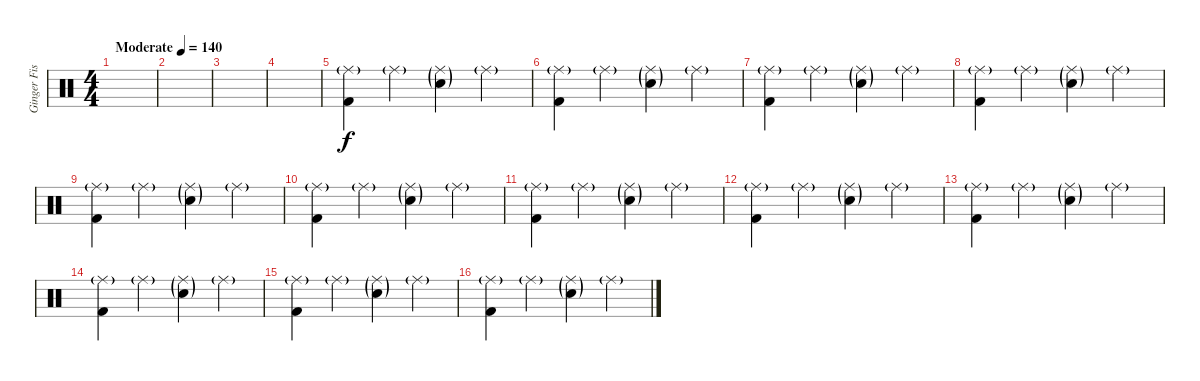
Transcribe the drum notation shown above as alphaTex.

\track ("Ginger Fish" "Ginger Fis") {instrument percussion}
\staff {score}
\articulation defaults
\ts (4 4)
\tempo (140 "Moderate")
\clef neutral
\ks c
|
|
|
|
("Ride (middle)"{g} "Kick (hit) 2").4 "Ride (middle)"{g}.4 ("Ride (middle)"{g} "Snare (hit) 2"{g}).4 "Ride (middle)"{g}.4 |
("Ride (middle)"{g} "Kick (hit) 2").4 "Ride (middle)"{g}.4 ("Ride (middle)"{g} "Snare (hit) 2"{g}).4 "Ride (middle)"{g}.4 |
("Ride (middle)"{g} "Kick (hit) 2").4 "Ride (middle)"{g}.4 ("Ride (middle)"{g} "Snare (hit) 2"{g}).4 "Ride (middle)"{g}.4 |
("Ride (middle)"{g} "Kick (hit) 2").4 "Ride (middle)"{g}.4 ("Ride (middle)"{g} "Snare (hit) 2"{g}).4 "Ride (middle)"{g}.4 |
("Ride (middle)"{g} "Kick (hit) 2").4 "Ride (middle)"{g}.4 ("Ride (middle)"{g} "Snare (hit) 2"{g}).4 "Ride (middle)"{g}.4 |
("Ride (middle)"{g} "Kick (hit) 2").4 "Ride (middle)"{g}.4 ("Ride (middle)"{g} "Snare (hit) 2"{g}).4 "Ride (middle)"{g}.4 |
("Ride (middle)"{g} "Kick (hit) 2").4 "Ride (middle)"{g}.4 ("Ride (middle)"{g} "Snare (hit) 2"{g}).4 "Ride (middle)"{g}.4 |
("Ride (middle)"{g} "Kick (hit) 2").4 "Ride (middle)"{g}.4 ("Ride (middle)"{g} "Snare (hit) 2"{g}).4 "Ride (middle)"{g}.4 |
("Ride (middle)"{g} "Kick (hit) 2").4 "Ride (middle)"{g}.4 ("Ride (middle)"{g} "Snare (hit) 2"{g}).4 "Ride (middle)"{g}.4 |
("Ride (middle)"{g} "Kick (hit) 2").4 "Ride (middle)"{g}.4 ("Ride (middle)"{g} "Snare (hit) 2"{g}).4 "Ride (middle)"{g}.4 |
("Ride (middle)"{g} "Kick (hit) 2").4 "Ride (middle)"{g}.4 ("Ride (middle)"{g} "Snare (hit) 2"{g}).4 "Ride (middle)"{g}.4 |
("Ride (middle)"{g} "Kick (hit) 2").4 "Ride (middle)"{g}.4 ("Ride (middle)"{g} "Snare (hit) 2"{g}).4 "Ride (middle)"{g}.4
